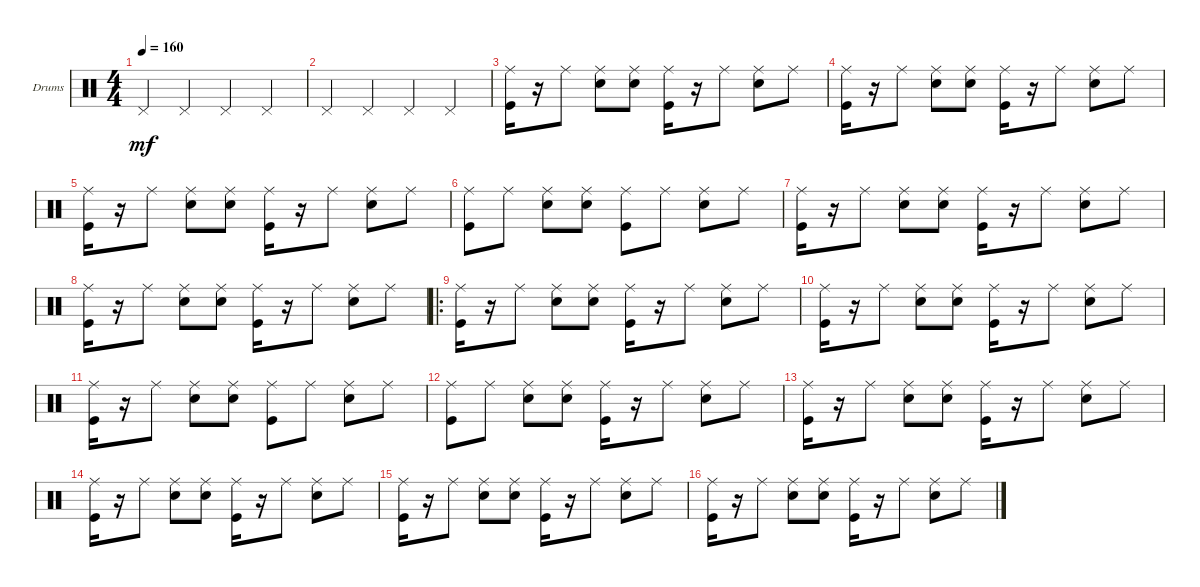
\defaultSystemsLayout 4
\bracketExtendMode groupsimilarinstruments
\firstSystemTrackNameOrientation horizontal
\otherSystemsTrackNameOrientation horizontal
\track ("Drumkit" "Drums") {instrument percussion}
\staff {score}
\articulation defaults
\ts (4 4)
\tempo 160
\clef neutral
\ks c "Pedal Hi-Hat (hit)".4{dy mf} "Pedal Hi-Hat (hit)".4 "Pedal Hi-Hat (hit)".4 "Pedal Hi-Hat (hit)".4
|
"Pedal Hi-Hat (hit)".4 "Pedal Hi-Hat (hit)".4 "Pedal Hi-Hat (hit)".4 "Pedal Hi-Hat (hit)".4 |
("Kick (hit)" "Ride (middle)").16 r.16 "Ride (middle)".8 ("Snare (hit) 2" "Ride (middle)").8 ("Snare (hit) 2" "Ride (middle)").8 ("Kick (hit)" "Ride (middle)").16 r.16 "Ride (middle)".8 ("Snare (hit) 2" "Ride (middle)").8 "Ride (middle)".8 |
("Kick (hit)" "Ride (middle)").16 r.16 "Ride (middle)".8 ("Snare (hit) 2" "Ride (middle)").8 ("Snare (hit) 2" "Ride (middle)").8 ("Kick (hit)" "Ride (middle)").16 r.16 "Ride (middle)".8 ("Ride (middle)" "Snare (hit) 2").8 "Ride (middle)".8 |
("Kick (hit)" "Ride (middle)").16 r.16 "Ride (middle)".8 ("Snare (hit) 2" "Ride (middle)").8 ("Snare (hit) 2" "Ride (middle)").8 ("Kick (hit)" "Ride (middle)").16 r.16 "Ride (middle)".8 ("Snare (hit) 2" "Ride (middle)").8 "Ride (middle)".8 |
("Kick (hit)" "Ride (middle)").8 "Ride (middle)".8 ("Snare (hit) 2" "Ride (middle)").8 ("Snare (hit) 2" "Ride (middle)").8 ("Kick (hit)" "Ride (middle)").8 "Ride (middle)".8 ("Snare (hit) 2" "Ride (middle)").8 "Ride (middle)".8 |
("Kick (hit)" "Ride (middle)").16 r.16 "Ride (middle)".8 ("Snare (hit) 2" "Ride (middle)").8 ("Snare (hit) 2" "Ride (middle)").8 ("Kick (hit)" "Ride (middle)").16 r.16 "Ride (middle)".8 ("Snare (hit) 2" "Ride (middle)").8 "Ride (middle)".8 |
("Kick (hit)" "Ride (middle)").16 r.16 "Ride (middle)".8 ("Snare (hit) 2" "Ride (middle)").8 ("Snare (hit) 2" "Ride (middle)").8 ("Kick (hit)" "Ride (middle)").16 r.16 "Ride (middle)".8 ("Snare (hit) 2" "Ride (middle)").8 "Ride (middle)".8 |
\ro
("Kick (hit)" "Ride (middle)").16 r.16 "Ride (middle)".8 ("Snare (hit) 2" "Ride (middle)").8 ("Snare (hit) 2" "Ride (middle)").8 ("Kick (hit)" "Ride (middle)").16 r.16 "Ride (middle)".8 ("Ride (middle)" "Snare (hit) 2").8 "Ride (middle)".8 |
("Kick (hit)" "Ride (middle)").16 r.16 "Ride (middle)".8 ("Snare (hit) 2" "Ride (middle)").8 ("Snare (hit) 2" "Ride (middle)").8 ("Kick (hit)" "Ride (middle)").16 r.16 "Ride (middle)".8 ("Ride (middle)" "Snare (hit) 2").8 "Ride (middle)".8 |
("Kick (hit)" "Ride (middle)").16 r.16 "Ride (middle)".8 ("Snare (hit) 2" "Ride (middle)").8 ("Snare (hit) 2" "Ride (middle)").8 ("Kick (hit)" "Ride (middle)").8 "Ride (middle)".8 ("Snare (hit) 2" "Ride (middle)").8 "Ride (middle)".8 |
("Kick (hit)" "Ride (middle)").8 "Ride (middle)".8 ("Snare (hit) 2" "Ride (middle)").8 ("Ride (middle)" "Snare (hit) 2").8 ("Kick (hit)" "Ride (middle)").16 r.16 "Ride (middle)".8 ("Snare (hit) 2" "Ride (middle)").8 "Ride (middle)".8 |
("Kick (hit)" "Ride (middle)").16 r.16 "Ride (middle)".8 ("Snare (hit) 2" "Ride (middle)").8 ("Snare (hit) 2" "Ride (middle)").8 ("Kick (hit)" "Ride (middle)").16 r.16 "Ride (middle)".8 ("Snare (hit) 2" "Ride (middle)").8 "Ride (middle)".8 |
("Kick (hit)" "Ride (middle)").16 r.16 "Ride (middle)".8 ("Snare (hit) 2" "Ride (middle)").8 ("Snare (hit) 2" "Ride (middle)").8 ("Kick (hit)" "Ride (middle)").16 r.16 "Ride (middle)".8 ("Snare (hit) 2" "Ride (middle)").8 "Ride (middle)".8 |
("Kick (hit)" "Ride (middle)").16 r.16 "Ride (middle)".8 ("Snare (hit) 2" "Ride (middle)").8 ("Ride (middle)" "Snare (hit) 2").8 ("Kick (hit)" "Ride (middle)").16 r.16 "Ride (middle)".8 ("Ride (middle)" "Snare (hit) 2").8 "Ride (middle)".8 |
("Kick (hit)" "Ride (middle)").16 r.16 "Ride (middle)".8 ("Snare (hit) 2" "Ride (middle)").8 ("Snare (hit) 2" "Ride (middle)").8 ("Kick (hit)" "Ride (middle)").16 r.16 "Ride (middle)".8 ("Snare (hit) 2" "Ride (middle)").8 "Ride (middle)".8
